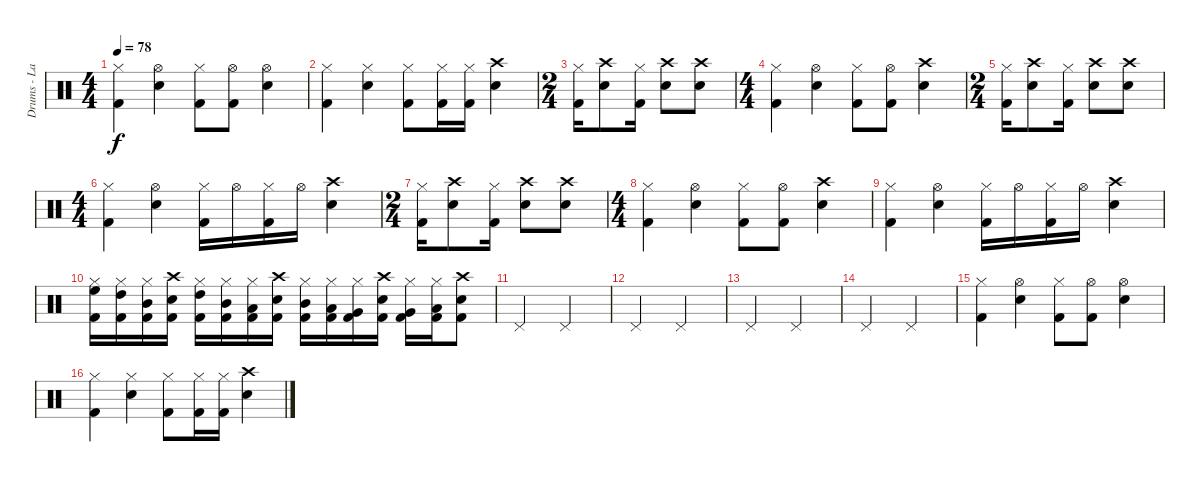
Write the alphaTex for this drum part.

\track ("Drums - Lars" "Drums - La") {instrument percussion}
\staff {score}
\articulation defaults
\ts (4 4)
\tempo 78
\clef neutral
\ks c
("Hi-Hat (closed)" "Kick (hit) 2").4{dy f} ("Hi-Hat (open)" "Electric Snare (hit)").4 ("Hi-Hat (closed)" "Kick (hit) 2").8 ("Hi-Hat (open)" "Kick (hit) 2").8 ("Hi-Hat (open)" "Electric Snare (hit)").4 |
("Hi-Hat (closed)" "Kick (hit) 2").4 ("Hi-Hat (closed)" "Electric Snare (hit)").4 ("Hi-Hat (closed)" "Kick (hit) 2").8 ("Hi-Hat (closed)" "Kick (hit) 2").16 ("Hi-Hat (closed)" "Kick (hit) 2").16 ("Crash high (hit)" "Electric Snare (hit)").4 |
\ts (2 4)
("Hi-Hat (closed)" "Kick (hit) 2").16 ("Crash high (hit)" "Electric Snare (hit)").8 ("Hi-Hat (closed)" "Kick (hit) 2").16 ("Crash high (hit)" "Electric Snare (hit)").8 ("Crash high (hit)" "Electric Snare (hit)").8 |
\ts (4 4)
("Hi-Hat (closed)" "Kick (hit) 2").4 ("Hi-Hat (open)" "Electric Snare (hit)").4 ("Hi-Hat (closed)" "Kick (hit) 2").8 ("Hi-Hat (open)" "Kick (hit) 2").8 ("Crash high (hit)" "Electric Snare (hit)").4 |
\ts (2 4)
("Hi-Hat (closed)" "Kick (hit) 2").16 ("Crash high (hit)" "Electric Snare (hit)").8 ("Hi-Hat (closed)" "Kick (hit) 2").16 ("Crash high (hit)" "Electric Snare (hit)").8 ("Crash high (hit)" "Electric Snare (hit)").8 |
\ts (4 4)
("Hi-Hat (closed)" "Kick (hit) 2").4 ("Hi-Hat (open)" "Electric Snare (hit)").4 ("Hi-Hat (closed)" "Kick (hit) 2").16 "Hi-Hat (open)".16 ("Hi-Hat (closed)" "Kick (hit) 2").16 "Hi-Hat (open)".16 ("Crash high (hit)" "Electric Snare (hit)").4 |
\ts (2 4)
("Hi-Hat (closed)" "Kick (hit) 2").16 ("Crash high (hit)" "Electric Snare (hit)").8 ("Hi-Hat (closed)" "Kick (hit) 2").16 ("Crash high (hit)" "Electric Snare (hit)").8 ("Crash high (hit)" "Electric Snare (hit)").8 |
\ts (4 4)
("Hi-Hat (closed)" "Kick (hit) 2").4 ("Hi-Hat (open)" "Electric Snare (hit)").4 ("Hi-Hat (closed)" "Kick (hit) 2").8 ("Hi-Hat (open)" "Kick (hit) 2").8 ("Crash high (hit)" "Electric Snare (hit)").4 |
("Hi-Hat (closed)" "Kick (hit) 2").4 ("Hi-Hat (open)" "Electric Snare (hit)").4 ("Hi-Hat (closed)" "Kick (hit) 2").16 "Hi-Hat (open)".16 ("Hi-Hat (closed)" "Kick (hit) 2").16 "Hi-Hat (open)".16 ("Crash high (hit)" "Electric Snare (hit)").4 |
("Hi-Hat (closed)" "High Floor Tom (hit)" "Kick (hit) 2").16 ("Hi-Hat (closed)" "High Tom (hit)" "Kick (hit) 2").16 ("Hi-Hat (closed)" "Mid Tom (hit)" "Kick (hit) 2").16 ("Crash high (hit)" "Electric Snare (hit)" "Kick (hit) 2").16 ("Hi-Hat (closed)" "High Tom (hit)" "Kick (hit) 2").16 ("Hi-Hat (closed)" "Mid Tom (hit)" "Kick (hit) 2").16 ("Hi-Hat (closed)" "Low Tom (hit)" "Kick (hit) 2").16 ("Crash high (hit)" "Electric Snare (hit)" "Kick (hit) 2").16 ("Hi-Hat (closed)" "Mid Tom (hit)" "Kick (hit) 2").16 ("Hi-Hat (closed)" "Low Tom (hit)" "Kick (hit) 2").16 ("Hi-Hat (closed)" "Very Low Tom (hit)" "Kick (hit) 2").16 ("Crash high (hit)" "Electric Snare (hit)" "Kick (hit) 2").16 ("Hi-Hat (closed)" "Very Low Tom (hit)" "Kick (hit) 2").16 ("Hi-Hat (closed)" "Low Floor Tom (hit)" "Kick (hit) 2").16 ("Crash high (hit)" "Electric Snare (hit)" "Kick (hit) 2").8 |
"Pedal Hi-Hat (hit)".2 "Pedal Hi-Hat (hit)".2 |
"Pedal Hi-Hat (hit)".2 "Pedal Hi-Hat (hit)".2 |
"Pedal Hi-Hat (hit)".2 "Pedal Hi-Hat (hit)".2 |
"Pedal Hi-Hat (hit)".2 "Pedal Hi-Hat (hit)".2 |
("Hi-Hat (closed)" "Kick (hit) 2").4 ("Hi-Hat (open)" "Electric Snare (hit)").4 ("Hi-Hat (closed)" "Kick (hit) 2").8 ("Hi-Hat (open)" "Kick (hit) 2").8 ("Hi-Hat (open)" "Electric Snare (hit)").4 |
("Hi-Hat (closed)" "Kick (hit) 2").4 ("Hi-Hat (closed)" "Electric Snare (hit)").4 ("Hi-Hat (closed)" "Kick (hit) 2").8 ("Hi-Hat (closed)" "Kick (hit) 2").16 ("Hi-Hat (closed)" "Kick (hit) 2").16 ("Crash high (hit)" "Electric Snare (hit)").4
